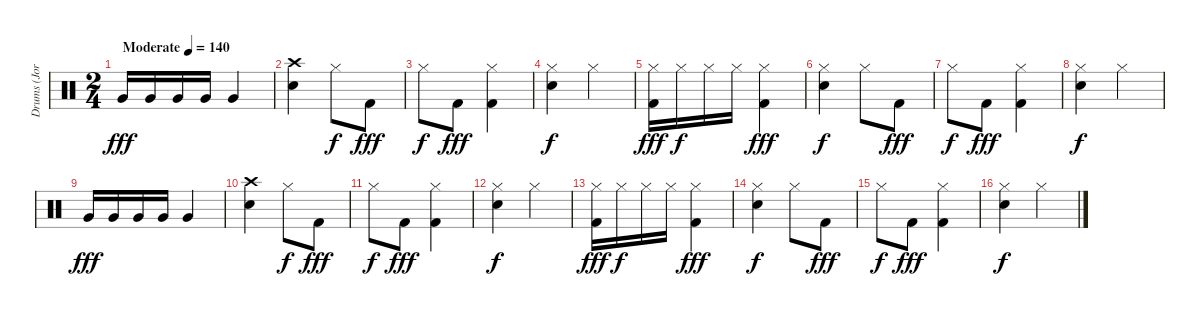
\track ("Drums (Jordan Hastings)" "Drums (Jor") {instrument percussion}
\staff {score}
\articulation defaults
\ts (2 4)
\tempo (140 "Moderate")
\clef neutral
\ks c "Very Low Tom (hit)".16{dy fff} "Very Low Tom (hit)".16 "Very Low Tom (hit)".16 "Very Low Tom (hit)".16 "Very Low Tom (hit)".4
|
("Crash high (hit)" "Electric Snare (hit)").4 "Hi-Hat (closed)".8{dy f} "Kick (hit) 2".8{dy fff} |
"Hi-Hat (closed)".8{dy f} "Kick (hit) 2".8{dy fff} ("Hi-Hat (closed)" "Kick (hit) 2").4 |
("Hi-Hat (closed)" "Electric Snare (hit)").4{dy f} "Hi-Hat (closed)".4 |
("Hi-Hat (closed)" "Kick (hit) 2").16{dy fff} "Hi-Hat (closed)".16{dy f} "Hi-Hat (closed)".16 "Hi-Hat (closed)".16 ("Hi-Hat (closed)" "Kick (hit) 2").4{dy fff} |
("Hi-Hat (closed)" "Electric Snare (hit)").4{dy f} "Hi-Hat (closed)".8 "Kick (hit) 2".8{dy fff} |
"Hi-Hat (closed)".8{dy f} "Kick (hit) 2".8{dy fff} ("Hi-Hat (closed)" "Kick (hit) 2").4 |
("Hi-Hat (closed)" "Electric Snare (hit)").4{dy f} "Hi-Hat (closed)".4 |
"Very Low Tom (hit)".16{dy fff} "Very Low Tom (hit)".16 "Very Low Tom (hit)".16 "Very Low Tom (hit)".16 "Very Low Tom (hit)".4 |
("Crash high (hit)" "Electric Snare (hit)").4 "Hi-Hat (closed)".8{dy f} "Kick (hit) 2".8{dy fff} |
"Hi-Hat (closed)".8{dy f} "Kick (hit) 2".8{dy fff} ("Hi-Hat (closed)" "Kick (hit) 2").4 |
("Hi-Hat (closed)" "Electric Snare (hit)").4{dy f} "Hi-Hat (closed)".4 |
("Hi-Hat (closed)" "Kick (hit) 2").16{dy fff} "Hi-Hat (closed)".16{dy f} "Hi-Hat (closed)".16 "Hi-Hat (closed)".16 ("Hi-Hat (closed)" "Kick (hit) 2").4{dy fff} |
("Hi-Hat (closed)" "Electric Snare (hit)").4{dy f} "Hi-Hat (closed)".8 "Kick (hit) 2".8{dy fff} |
"Hi-Hat (closed)".8{dy f} "Kick (hit) 2".8{dy fff} ("Hi-Hat (closed)" "Kick (hit) 2").4 |
("Hi-Hat (closed)" "Electric Snare (hit)").4{dy f} "Hi-Hat (closed)".4
